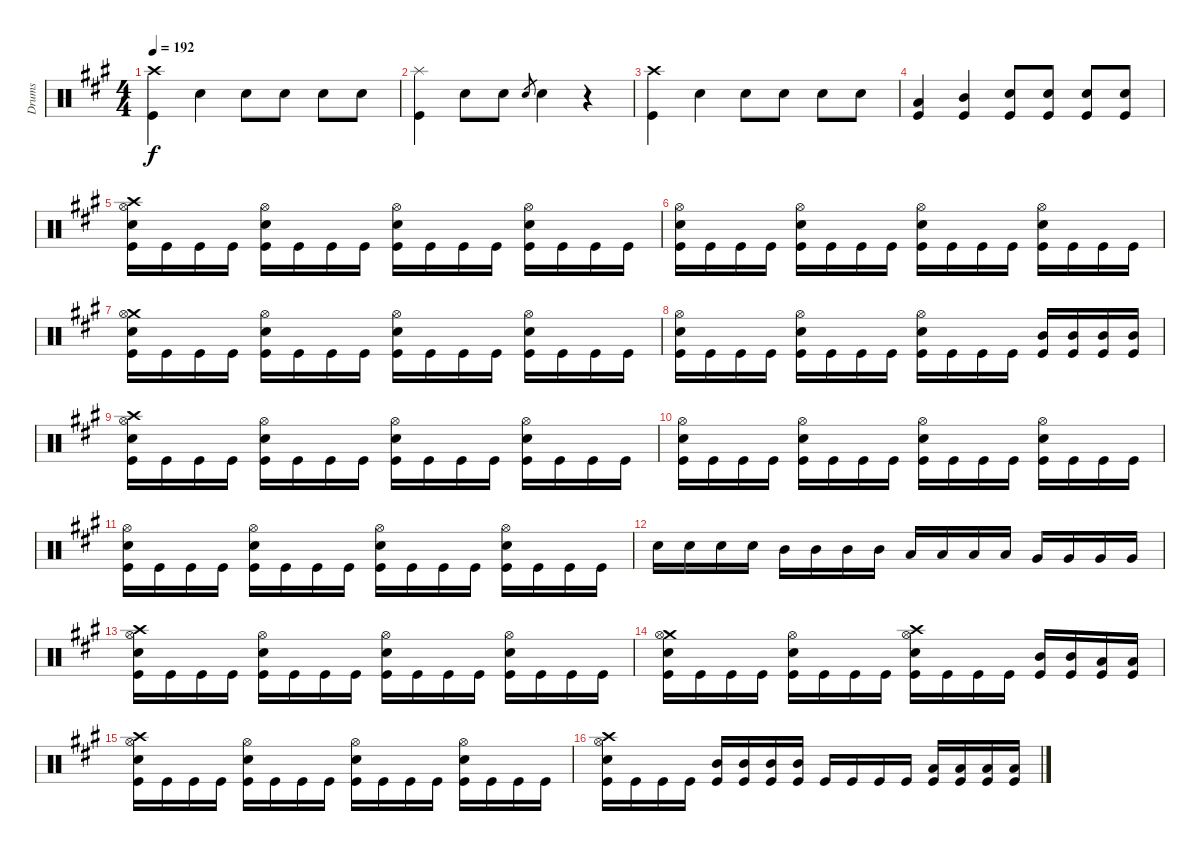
\track ("Drums" "Drums") {instrument percussion}
\staff {score}
\articulation defaults
\ts (4 4)
\tempo 192
\clef neutral
\ks f#minor
("Crash high (hit)" "Kick (hit)").4{dy f} "Snare (hit) 2".4 "Snare (hit) 2".8 "Snare (hit) 2".8 "Snare (hit) 2".8 "Snare (hit) 2".8 |
("Splash (hit)" "Kick (hit)").4 "Snare (hit) 2".8 "Snare (hit) 2".8 "Snare (hit) 2".8{gr} "Snare (hit) 2".4 r.4 |
("Crash high (hit)" "Kick (hit)").4 "Snare (hit) 2"{tr (38 16)}.4 "Snare (hit) 2".8 "Snare (hit) 2".8 "Snare (hit) 2".8 "Snare (hit) 2".8 |
("Low Tom (hit)" "Kick (hit)").4 ("Mid Tom (hit)" "Kick (hit)").4 ("Snare (hit) 2" "Kick (hit)").8 ("Snare (hit) 2" "Kick (hit)").8 ("Snare (hit) 2" "Kick (hit)").8 ("Snare (hit) 2" "Kick (hit)").8 |
("Crash high (hit)" "Hi-Hat (open)" "Snare (hit) 2" "Kick (hit)").16 "Kick (hit)".16 "Kick (hit)".16 "Kick (hit)".16 ("Hi-Hat (open)" "Snare (hit) 2" "Kick (hit)").16 "Kick (hit)".16 "Kick (hit)".16 "Kick (hit)".16 ("Hi-Hat (open)" "Snare (hit) 2" "Kick (hit)").16 "Kick (hit)".16 "Kick (hit)".16 "Kick (hit)".16 ("Hi-Hat (open)" "Snare (hit) 2" "Kick (hit)").16 "Kick (hit)".16 "Kick (hit)".16 "Kick (hit)".16 |
("Hi-Hat (open)" "Snare (hit) 2" "Kick (hit)").16 "Kick (hit)".16 "Kick (hit)".16 "Kick (hit)".16 ("Hi-Hat (open)" "Snare (hit) 2" "Kick (hit)").16 "Kick (hit)".16 "Kick (hit)".16 "Kick (hit)".16 ("Hi-Hat (open)" "Snare (hit) 2" "Kick (hit)").16 "Kick (hit)".16 "Kick (hit)".16 "Kick (hit)".16 ("Hi-Hat (open)" "Snare (hit) 2" "Kick (hit)").16 "Kick (hit)".16 "Kick (hit)".16 "Kick (hit)".16 |
("Crash medium (hit)" "Hi-Hat (open)" "Snare (hit) 2" "Kick (hit)").16 "Kick (hit)".16 "Kick (hit)".16 "Kick (hit)".16 ("Hi-Hat (open)" "Snare (hit) 2" "Kick (hit)").16 "Kick (hit)".16 "Kick (hit)".16 "Kick (hit)".16 ("Hi-Hat (open)" "Snare (hit) 2" "Kick (hit)").16 "Kick (hit)".16 "Kick (hit)".16 "Kick (hit)".16 ("Hi-Hat (open)" "Snare (hit) 2" "Kick (hit)").16 "Kick (hit)".16 "Kick (hit)".16 "Kick (hit)".16 |
("Hi-Hat (open)" "Snare (hit) 2" "Kick (hit)").16 "Kick (hit)".16 "Kick (hit)".16 "Kick (hit)".16 ("Hi-Hat (open)" "Snare (hit) 2" "Kick (hit)").16 "Kick (hit)".16 "Kick (hit)".16 "Kick (hit)".16 ("Hi-Hat (open)" "Snare (hit) 2" "Kick (hit)").16 "Kick (hit)".16 "Kick (hit)".16 "Kick (hit)".16 ("Mid Tom (hit)" "Kick (hit)").16 ("Mid Tom (hit)" "Kick (hit)").16 ("Mid Tom (hit)" "Kick (hit)").16 ("Mid Tom (hit)" "Kick (hit)").16 |
("Crash high (hit)" "Hi-Hat (open)" "Snare (hit) 2" "Kick (hit)").16 "Kick (hit)".16 "Kick (hit)".16 "Kick (hit)".16 ("Hi-Hat (open)" "Snare (hit) 2" "Kick (hit)").16 "Kick (hit)".16 "Kick (hit)".16 "Kick (hit)".16 ("Hi-Hat (open)" "Snare (hit) 2" "Kick (hit)").16 "Kick (hit)".16 "Kick (hit)".16 "Kick (hit)".16 ("Hi-Hat (open)" "Snare (hit) 2" "Kick (hit)").16 "Kick (hit)".16 "Kick (hit)".16 "Kick (hit)".16 |
("Hi-Hat (open)" "Snare (hit) 2" "Kick (hit)").16 "Kick (hit)".16 "Kick (hit)".16 "Kick (hit)".16 ("Hi-Hat (open)" "Snare (hit) 2" "Kick (hit)").16 "Kick (hit)".16 "Kick (hit)".16 "Kick (hit)".16 ("Hi-Hat (open)" "Snare (hit) 2" "Kick (hit)").16 "Kick (hit)".16 "Kick (hit)".16 "Kick (hit)".16 ("Hi-Hat (open)" "Snare (hit) 2" "Kick (hit)").16 "Kick (hit)".16 "Kick (hit)".16 "Kick (hit)".16 |
("Hi-Hat (open)" "Snare (hit) 2" "Kick (hit)").16 "Kick (hit)".16 "Kick (hit)".16 "Kick (hit)".16 ("Hi-Hat (open)" "Snare (hit) 2" "Kick (hit)").16 "Kick (hit)".16 "Kick (hit)".16 "Kick (hit)".16 ("Hi-Hat (open)" "Snare (hit) 2" "Kick (hit)").16 "Kick (hit)".16 "Kick (hit)".16 "Kick (hit)".16 ("Hi-Hat (open)" "Snare (hit) 2" "Kick (hit)").16 "Kick (hit)".16 "Kick (hit)".16 "Kick (hit)".16 |
"Snare (hit) 2".16 "Snare (hit) 2".16 "Snare (hit) 2".16 "Snare (hit) 2".16 "Mid Tom (hit)".16 "Mid Tom (hit)".16 "Mid Tom (hit)".16 "Mid Tom (hit)".16 "Low Tom (hit)".16 "Low Tom (hit)".16 "Low Tom (hit)".16 "Low Tom (hit)".16 "Very Low Tom (hit)".16 "Very Low Tom (hit)".16 "Very Low Tom (hit)".16 "Very Low Tom (hit)".16 |
("Crash high (hit)" "Hi-Hat (open)" "Snare (hit) 2" "Kick (hit)").16 "Kick (hit)".16 "Kick (hit)".16 "Kick (hit)".16 ("Hi-Hat (open)" "Snare (hit) 2" "Kick (hit)").16 "Kick (hit)".16 "Kick (hit)".16 "Kick (hit)".16 ("Hi-Hat (open)" "Snare (hit) 2" "Kick (hit)").16 "Kick (hit)".16 "Kick (hit)".16 "Kick (hit)".16 ("Hi-Hat (open)" "Snare (hit) 2" "Kick (hit)").16 "Kick (hit)".16 "Kick (hit)".16 "Kick (hit)".16 |
("Crash medium (hit)" "Hi-Hat (open)" "Snare (hit) 2" "Kick (hit)").16 "Kick (hit)".16 "Kick (hit)".16 "Kick (hit)".16 ("Hi-Hat (open)" "Snare (hit) 2" "Kick (hit)").16 "Kick (hit)".16 "Kick (hit)".16 "Kick (hit)".16 ("Crash high (hit)" "Hi-Hat (open)" "Snare (hit) 2" "Kick (hit)").16 "Kick (hit)".16 "Kick (hit)".16 "Kick (hit)".16 ("Mid Tom (hit)" "Kick (hit)").16 ("Mid Tom (hit)" "Kick (hit)").16 ("Low Tom (hit)" "Kick (hit)").16 ("Low Tom (hit)" "Kick (hit)").16 |
("Crash high (hit)" "Hi-Hat (open)" "Snare (hit) 2" "Kick (hit)").16 "Kick (hit)".16 "Kick (hit)".16 "Kick (hit)".16 ("Hi-Hat (open)" "Snare (hit) 2" "Kick (hit)").16 "Kick (hit)".16 "Kick (hit)".16 "Kick (hit)".16 ("Hi-Hat (open)" "Snare (hit) 2" "Kick (hit)").16 "Kick (hit)".16 "Kick (hit)".16 "Kick (hit)".16 ("Hi-Hat (open)" "Snare (hit) 2" "Kick (hit)").16 "Kick (hit)".16 "Kick (hit)".16 "Kick (hit)".16 |
("Crash high (hit)" "Hi-Hat (open)" "Snare (hit) 2" "Kick (hit)").16 "Kick (hit)".16 "Kick (hit)".16 "Kick (hit)".16 ("Mid Tom (hit)" "Kick (hit)").16 ("Mid Tom (hit)" "Kick (hit)").16 ("Mid Tom (hit)" "Kick (hit)").16 ("Mid Tom (hit)" "Kick (hit)").16 "Kick (hit)".16 "Kick (hit)".16 "Kick (hit)".16 "Kick (hit)".16 ("Low Tom (hit)" "Kick (hit)").16 ("Low Tom (hit)" "Kick (hit)").16 ("Low Tom (hit)" "Kick (hit)").16 ("Low Tom (hit)" "Kick (hit)").16
